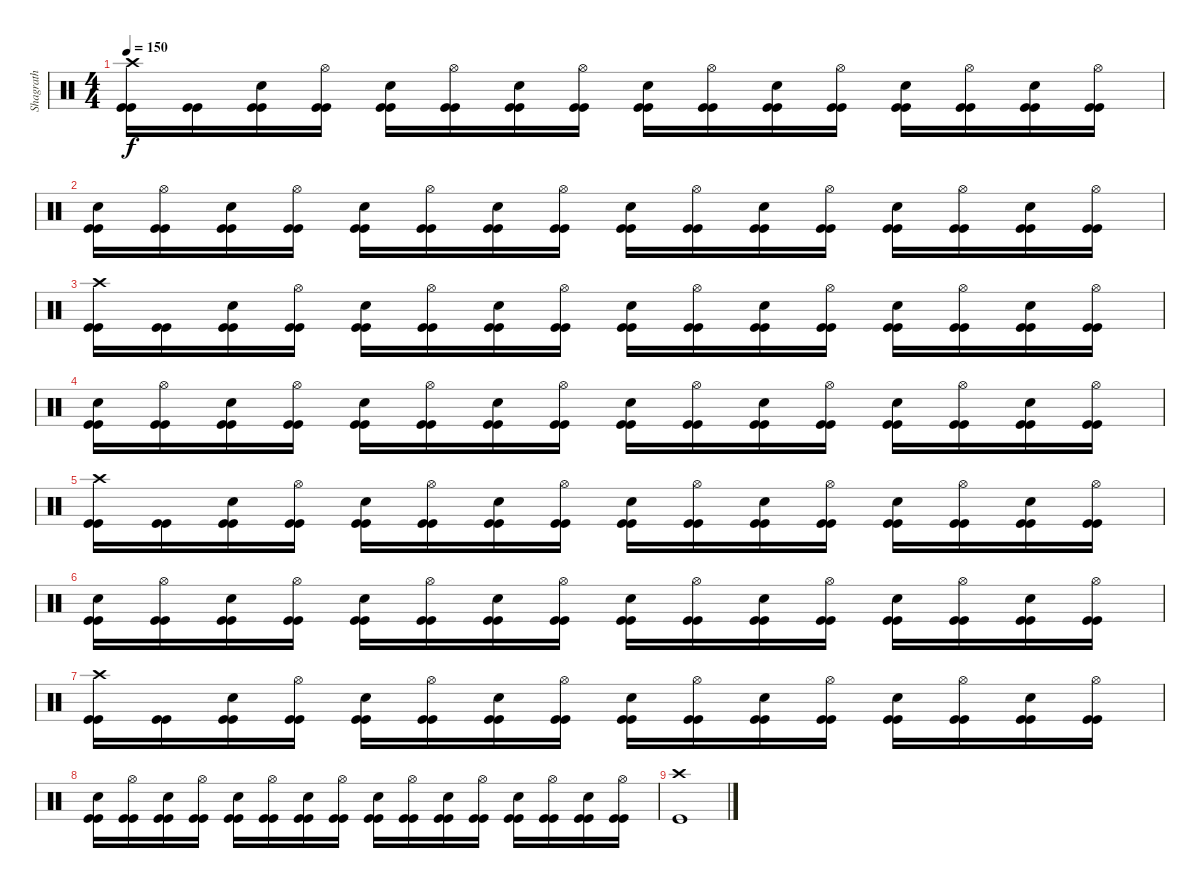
\track ("Shagrath" "Shagrath") {instrument percussion}
\staff {score}
\articulation defaults
\ts (4 4)
\tempo 150
\clef neutral
\ks c
("Kick (hit)" "Kick (hit)" "Crash high (hit)").16{dy f} ("Kick (hit)" "Kick (hit)").16 ("Kick (hit)" "Kick (hit)" "Electric Snare (hit)").16 ("Kick (hit)" "Kick (hit)" "Hi-Hat (open)").16 ("Kick (hit)" "Kick (hit)" "Electric Snare (hit)").16 ("Kick (hit)" "Kick (hit)" "Hi-Hat (open)").16 ("Kick (hit)" "Kick (hit)" "Electric Snare (hit)").16 ("Kick (hit)" "Kick (hit)" "Hi-Hat (open)").16 ("Kick (hit)" "Kick (hit)" "Electric Snare (hit)").16 ("Kick (hit)" "Kick (hit)" "Hi-Hat (open)").16 ("Kick (hit)" "Kick (hit)" "Electric Snare (hit)").16 ("Kick (hit)" "Kick (hit)" "Hi-Hat (open)").16 ("Kick (hit)" "Kick (hit)" "Electric Snare (hit)").16 ("Kick (hit)" "Kick (hit)" "Hi-Hat (open)").16 ("Kick (hit)" "Kick (hit)" "Electric Snare (hit)").16 ("Kick (hit)" "Kick (hit)" "Hi-Hat (open)").16 |
("Kick (hit)" "Kick (hit)" "Electric Snare (hit)").16 ("Kick (hit)" "Kick (hit)" "Hi-Hat (open)").16 ("Kick (hit)" "Kick (hit)" "Electric Snare (hit)").16 ("Kick (hit)" "Kick (hit)" "Hi-Hat (open)").16 ("Kick (hit)" "Kick (hit)" "Electric Snare (hit)").16 ("Kick (hit)" "Kick (hit)" "Hi-Hat (open)").16 ("Kick (hit)" "Kick (hit)" "Electric Snare (hit)").16 ("Kick (hit)" "Kick (hit)" "Hi-Hat (open)").16 ("Kick (hit)" "Kick (hit)" "Electric Snare (hit)").16 ("Kick (hit)" "Kick (hit)" "Hi-Hat (open)").16 ("Kick (hit)" "Kick (hit)" "Electric Snare (hit)").16 ("Kick (hit)" "Kick (hit)" "Hi-Hat (open)").16 ("Kick (hit)" "Kick (hit)" "Electric Snare (hit)").16 ("Kick (hit)" "Kick (hit)" "Hi-Hat (open)").16 ("Kick (hit)" "Kick (hit)" "Electric Snare (hit)").16 ("Kick (hit)" "Kick (hit)" "Hi-Hat (open)").16 |
("Kick (hit)" "Kick (hit)" "Crash high (hit)").16 ("Kick (hit)" "Kick (hit)").16 ("Kick (hit)" "Kick (hit)" "Electric Snare (hit)").16 ("Kick (hit)" "Kick (hit)" "Hi-Hat (open)").16 ("Kick (hit)" "Kick (hit)" "Electric Snare (hit)").16 ("Kick (hit)" "Kick (hit)" "Hi-Hat (open)").16 ("Kick (hit)" "Kick (hit)" "Electric Snare (hit)").16 ("Kick (hit)" "Kick (hit)" "Hi-Hat (open)").16 ("Kick (hit)" "Kick (hit)" "Electric Snare (hit)").16 ("Kick (hit)" "Kick (hit)" "Hi-Hat (open)").16 ("Kick (hit)" "Kick (hit)" "Electric Snare (hit)").16 ("Kick (hit)" "Kick (hit)" "Hi-Hat (open)").16 ("Kick (hit)" "Kick (hit)" "Electric Snare (hit)").16 ("Kick (hit)" "Kick (hit)" "Hi-Hat (open)").16 ("Kick (hit)" "Kick (hit)" "Electric Snare (hit)").16 ("Kick (hit)" "Kick (hit)" "Hi-Hat (open)").16 |
("Kick (hit)" "Kick (hit)" "Electric Snare (hit)").16 ("Kick (hit)" "Kick (hit)" "Hi-Hat (open)").16 ("Kick (hit)" "Kick (hit)" "Electric Snare (hit)").16 ("Kick (hit)" "Kick (hit)" "Hi-Hat (open)").16 ("Kick (hit)" "Kick (hit)" "Electric Snare (hit)").16 ("Kick (hit)" "Kick (hit)" "Hi-Hat (open)").16 ("Kick (hit)" "Kick (hit)" "Electric Snare (hit)").16 ("Kick (hit)" "Kick (hit)" "Hi-Hat (open)").16 ("Kick (hit)" "Kick (hit)" "Electric Snare (hit)").16 ("Kick (hit)" "Kick (hit)" "Hi-Hat (open)").16 ("Kick (hit)" "Kick (hit)" "Electric Snare (hit)").16 ("Kick (hit)" "Kick (hit)" "Hi-Hat (open)").16 ("Kick (hit)" "Kick (hit)" "Electric Snare (hit)").16 ("Kick (hit)" "Kick (hit)" "Hi-Hat (open)").16 ("Kick (hit)" "Kick (hit)" "Electric Snare (hit)").16 ("Kick (hit)" "Kick (hit)" "Hi-Hat (open)").16 |
("Kick (hit)" "Kick (hit)" "Crash high (hit)").16 ("Kick (hit)" "Kick (hit)").16 ("Kick (hit)" "Kick (hit)" "Electric Snare (hit)").16 ("Kick (hit)" "Kick (hit)" "Hi-Hat (open)").16 ("Kick (hit)" "Kick (hit)" "Electric Snare (hit)").16 ("Kick (hit)" "Kick (hit)" "Hi-Hat (open)").16 ("Kick (hit)" "Kick (hit)" "Electric Snare (hit)").16 ("Kick (hit)" "Kick (hit)" "Hi-Hat (open)").16 ("Kick (hit)" "Kick (hit)" "Electric Snare (hit)").16 ("Kick (hit)" "Kick (hit)" "Hi-Hat (open)").16 ("Kick (hit)" "Kick (hit)" "Electric Snare (hit)").16 ("Kick (hit)" "Kick (hit)" "Hi-Hat (open)").16 ("Kick (hit)" "Kick (hit)" "Electric Snare (hit)").16 ("Kick (hit)" "Kick (hit)" "Hi-Hat (open)").16 ("Kick (hit)" "Kick (hit)" "Electric Snare (hit)").16 ("Kick (hit)" "Kick (hit)" "Hi-Hat (open)").16 |
("Kick (hit)" "Kick (hit)" "Electric Snare (hit)").16 ("Kick (hit)" "Kick (hit)" "Hi-Hat (open)").16 ("Kick (hit)" "Kick (hit)" "Electric Snare (hit)").16 ("Kick (hit)" "Kick (hit)" "Hi-Hat (open)").16 ("Kick (hit)" "Kick (hit)" "Electric Snare (hit)").16 ("Kick (hit)" "Kick (hit)" "Hi-Hat (open)").16 ("Kick (hit)" "Kick (hit)" "Electric Snare (hit)").16 ("Kick (hit)" "Kick (hit)" "Hi-Hat (open)").16 ("Kick (hit)" "Kick (hit)" "Electric Snare (hit)").16 ("Kick (hit)" "Kick (hit)" "Hi-Hat (open)").16 ("Kick (hit)" "Kick (hit)" "Electric Snare (hit)").16 ("Kick (hit)" "Kick (hit)" "Hi-Hat (open)").16 ("Kick (hit)" "Kick (hit)" "Electric Snare (hit)").16 ("Kick (hit)" "Kick (hit)" "Hi-Hat (open)").16 ("Kick (hit)" "Kick (hit)" "Electric Snare (hit)").16 ("Kick (hit)" "Kick (hit)" "Hi-Hat (open)").16 |
("Kick (hit)" "Kick (hit)" "Crash high (hit)").16 ("Kick (hit)" "Kick (hit)").16 ("Kick (hit)" "Kick (hit)" "Electric Snare (hit)").16 ("Kick (hit)" "Kick (hit)" "Hi-Hat (open)").16 ("Kick (hit)" "Kick (hit)" "Electric Snare (hit)").16 ("Kick (hit)" "Kick (hit)" "Hi-Hat (open)").16 ("Kick (hit)" "Kick (hit)" "Electric Snare (hit)").16 ("Kick (hit)" "Kick (hit)" "Hi-Hat (open)").16 ("Kick (hit)" "Kick (hit)" "Electric Snare (hit)").16 ("Kick (hit)" "Kick (hit)" "Hi-Hat (open)").16 ("Kick (hit)" "Kick (hit)" "Electric Snare (hit)").16 ("Kick (hit)" "Kick (hit)" "Hi-Hat (open)").16 ("Kick (hit)" "Kick (hit)" "Electric Snare (hit)").16 ("Kick (hit)" "Kick (hit)" "Hi-Hat (open)").16 ("Kick (hit)" "Kick (hit)" "Electric Snare (hit)").16 ("Kick (hit)" "Kick (hit)" "Hi-Hat (open)").16 |
("Kick (hit)" "Kick (hit)" "Electric Snare (hit)").16 ("Kick (hit)" "Kick (hit)" "Hi-Hat (open)").16 ("Kick (hit)" "Kick (hit)" "Electric Snare (hit)").16 ("Kick (hit)" "Kick (hit)" "Hi-Hat (open)").16 ("Kick (hit)" "Kick (hit)" "Electric Snare (hit)").16 ("Kick (hit)" "Kick (hit)" "Hi-Hat (open)").16 ("Kick (hit)" "Kick (hit)" "Electric Snare (hit)").16 ("Kick (hit)" "Kick (hit)" "Hi-Hat (open)").16 ("Kick (hit)" "Kick (hit)" "Electric Snare (hit)").16 ("Kick (hit)" "Kick (hit)" "Hi-Hat (open)").16 ("Kick (hit)" "Kick (hit)" "Electric Snare (hit)").16 ("Kick (hit)" "Kick (hit)" "Hi-Hat (open)").16 ("Kick (hit)" "Kick (hit)" "Electric Snare (hit)").16 ("Kick (hit)" "Kick (hit)" "Hi-Hat (open)").16 ("Kick (hit)" "Kick (hit)" "Electric Snare (hit)").16 ("Kick (hit)" "Kick (hit)" "Hi-Hat (open)").16 |
("Kick (hit)" "Crash high (hit)").1
